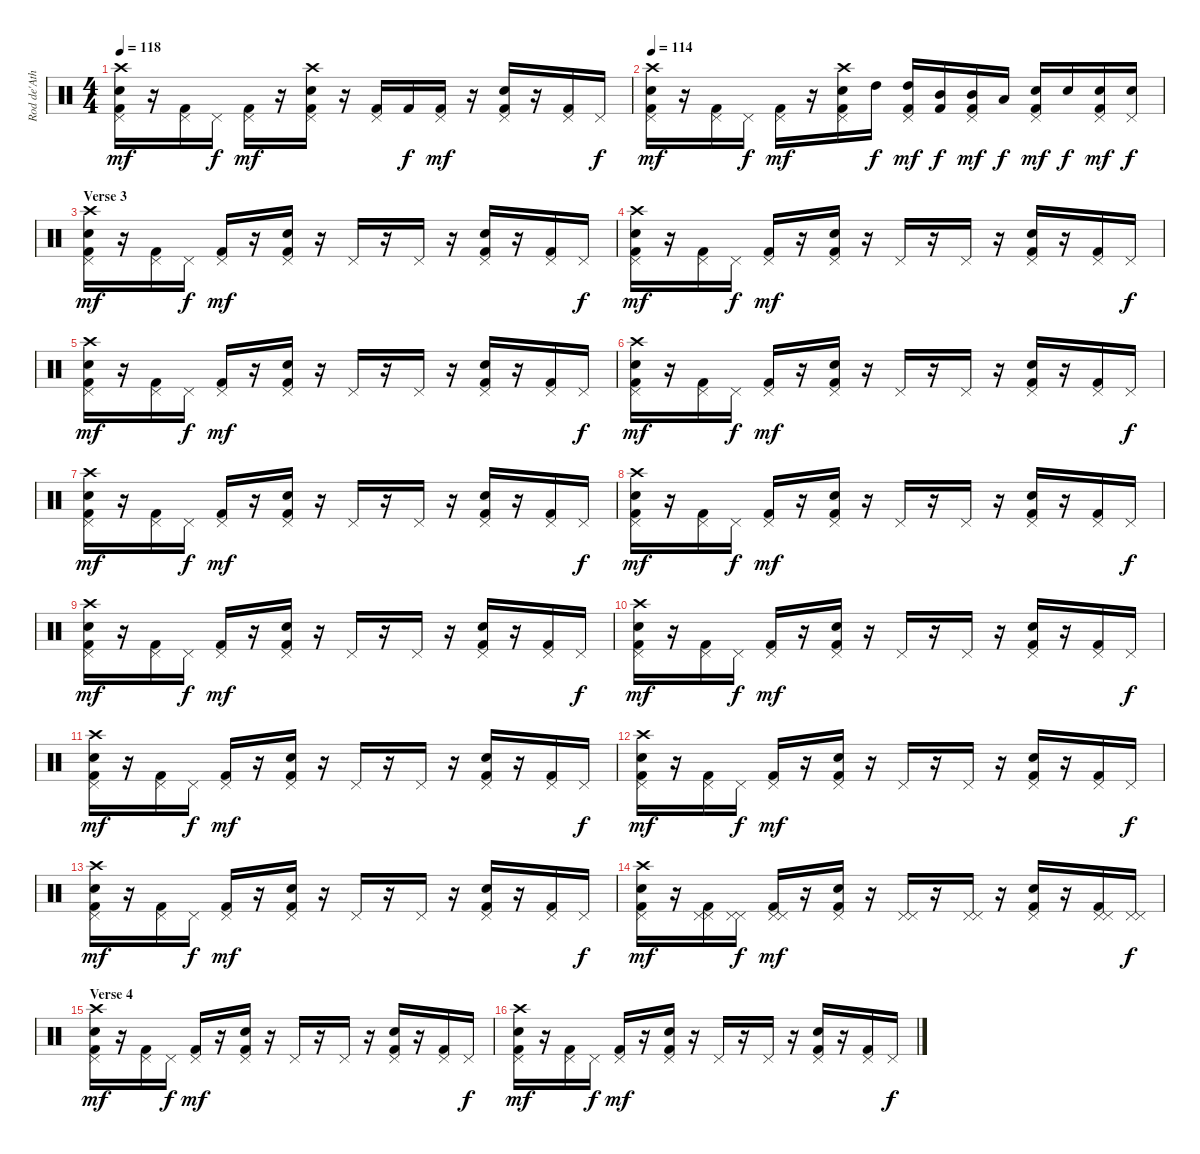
\track ("Rod de'Ath" "Rod de'Ath") {instrument percussion}
\staff {score}
\articulation defaults
\ts (4 4)
\tempo 118
\clef neutral
\ks c
("Crash high (hit)" "Snare (hit) 2" "Pedal Hi-Hat (hit)" "Kick (hit) 2").16{dy mf} r.16 ("Pedal Hi-Hat (hit)" "Kick (hit) 2").16 "Pedal Hi-Hat (hit)".16{dy f} ("Pedal Hi-Hat (hit)" "Kick (hit) 2").16{dy mf} r.16 ("Crash high (hit)" "Snare (hit) 2" "Pedal Hi-Hat (hit)" "Kick (hit) 2").16 r.16 ("Pedal Hi-Hat (hit)" "Kick (hit) 2").16 "Kick (hit) 2".16{dy f} ("Pedal Hi-Hat (hit)" "Kick (hit) 2").16{dy mf} r.16 ("Snare (hit) 2" "Pedal Hi-Hat (hit)" "Kick (hit) 2").16 r.16 ("Pedal Hi-Hat (hit)" "Kick (hit) 2").16 "Pedal Hi-Hat (hit)".16{dy f} |
\tempo 114
("Crash high (hit)" "Snare (hit) 2" "Pedal Hi-Hat (hit)" "Kick (hit) 2").16{dy mf} r.16 ("Pedal Hi-Hat (hit)" "Kick (hit) 2").16 "Pedal Hi-Hat (hit)".16{dy f} ("Pedal Hi-Hat (hit)" "Kick (hit) 2").16{dy mf} r.16 ("Crash high (hit)" "Snare (hit) 2" "Pedal Hi-Hat (hit)" "Kick (hit) 2").16 "High Tom (hit)".16{dy f} ("High Tom (hit)" "Pedal Hi-Hat (hit)" "Kick (hit) 2").16{dy mf} ("Mid Tom (hit)" "Kick (hit) 2").16{dy f} ("Mid Tom (hit)" "Pedal Hi-Hat (hit)" "Kick (hit) 2").16{dy mf} "Low Tom (hit)".16{dy f} ("Snare (hit) 2" "Pedal Hi-Hat (hit)" "Kick (hit) 2").16{dy mf} "Snare (hit) 2".16{dy f} ("Snare (hit) 2" "Pedal Hi-Hat (hit)" "Kick (hit) 2").16{dy mf} ("Snare (hit) 2" "Pedal Hi-Hat (hit)").16{dy f} |
\section ("" "Verse 3")
("Crash high (hit)" "Snare (hit) 2" "Pedal Hi-Hat (hit)" "Kick (hit) 2").16{dy mf} r.16 ("Pedal Hi-Hat (hit)" "Kick (hit) 2").16 "Pedal Hi-Hat (hit)".16{dy f} ("Pedal Hi-Hat (hit)" "Kick (hit) 2").16{dy mf} r.16 ("Snare (hit) 2" "Pedal Hi-Hat (hit)" "Kick (hit) 2").16 r.16 "Pedal Hi-Hat (hit)".16 r.16 "Pedal Hi-Hat (hit)".16 r.16 ("Snare (hit) 2" "Pedal Hi-Hat (hit)" "Kick (hit) 2").16 r.16 ("Pedal Hi-Hat (hit)" "Kick (hit) 2").16 "Pedal Hi-Hat (hit)".16{dy f} |
("Crash high (hit)" "Snare (hit) 2" "Pedal Hi-Hat (hit)" "Kick (hit) 2").16{dy mf} r.16 ("Pedal Hi-Hat (hit)" "Kick (hit) 2").16 "Pedal Hi-Hat (hit)".16{dy f} ("Pedal Hi-Hat (hit)" "Kick (hit) 2").16{dy mf} r.16 ("Snare (hit) 2" "Pedal Hi-Hat (hit)" "Kick (hit) 2").16 r.16 "Pedal Hi-Hat (hit)".16 r.16 "Pedal Hi-Hat (hit)".16 r.16 ("Snare (hit) 2" "Pedal Hi-Hat (hit)" "Kick (hit) 2").16 r.16 ("Pedal Hi-Hat (hit)" "Kick (hit) 2").16 "Pedal Hi-Hat (hit)".16{dy f} |
("Crash high (hit)" "Snare (hit) 2" "Pedal Hi-Hat (hit)" "Kick (hit) 2").16{dy mf} r.16 ("Pedal Hi-Hat (hit)" "Kick (hit) 2").16 "Pedal Hi-Hat (hit)".16{dy f} ("Pedal Hi-Hat (hit)" "Kick (hit) 2").16{dy mf} r.16 ("Snare (hit) 2" "Pedal Hi-Hat (hit)" "Kick (hit) 2").16 r.16 "Pedal Hi-Hat (hit)".16 r.16 "Pedal Hi-Hat (hit)".16 r.16 ("Snare (hit) 2" "Pedal Hi-Hat (hit)" "Kick (hit) 2").16 r.16 ("Pedal Hi-Hat (hit)" "Kick (hit) 2").16 "Pedal Hi-Hat (hit)".16{dy f} |
("Crash high (hit)" "Snare (hit) 2" "Pedal Hi-Hat (hit)" "Kick (hit) 2").16{dy mf} r.16 ("Pedal Hi-Hat (hit)" "Kick (hit) 2").16 "Pedal Hi-Hat (hit)".16{dy f} ("Pedal Hi-Hat (hit)" "Kick (hit) 2").16{dy mf} r.16 ("Snare (hit) 2" "Pedal Hi-Hat (hit)" "Kick (hit) 2").16 r.16 "Pedal Hi-Hat (hit)".16 r.16 "Pedal Hi-Hat (hit)".16 r.16 ("Snare (hit) 2" "Pedal Hi-Hat (hit)" "Kick (hit) 2").16 r.16 ("Pedal Hi-Hat (hit)" "Kick (hit) 2").16 "Pedal Hi-Hat (hit)".16{dy f} |
("Crash high (hit)" "Snare (hit) 2" "Pedal Hi-Hat (hit)" "Kick (hit) 2").16{dy mf} r.16 ("Pedal Hi-Hat (hit)" "Kick (hit) 2").16 "Pedal Hi-Hat (hit)".16{dy f} ("Pedal Hi-Hat (hit)" "Kick (hit) 2").16{dy mf} r.16 ("Snare (hit) 2" "Pedal Hi-Hat (hit)" "Kick (hit) 2").16 r.16 "Pedal Hi-Hat (hit)".16 r.16 "Pedal Hi-Hat (hit)".16 r.16 ("Snare (hit) 2" "Pedal Hi-Hat (hit)" "Kick (hit) 2").16 r.16 ("Pedal Hi-Hat (hit)" "Kick (hit) 2").16 "Pedal Hi-Hat (hit)".16{dy f} |
("Crash high (hit)" "Snare (hit) 2" "Pedal Hi-Hat (hit)" "Kick (hit) 2").16{dy mf} r.16 ("Pedal Hi-Hat (hit)" "Kick (hit) 2").16 "Pedal Hi-Hat (hit)".16{dy f} ("Pedal Hi-Hat (hit)" "Kick (hit) 2").16{dy mf} r.16 ("Snare (hit) 2" "Pedal Hi-Hat (hit)" "Kick (hit) 2").16 r.16 "Pedal Hi-Hat (hit)".16 r.16 "Pedal Hi-Hat (hit)".16 r.16 ("Snare (hit) 2" "Pedal Hi-Hat (hit)" "Kick (hit) 2").16 r.16 ("Pedal Hi-Hat (hit)" "Kick (hit) 2").16 "Pedal Hi-Hat (hit)".16{dy f} |
("Crash high (hit)" "Snare (hit) 2" "Pedal Hi-Hat (hit)" "Kick (hit) 2").16{dy mf} r.16 ("Pedal Hi-Hat (hit)" "Kick (hit) 2").16 "Pedal Hi-Hat (hit)".16{dy f} ("Pedal Hi-Hat (hit)" "Kick (hit) 2").16{dy mf} r.16 ("Snare (hit) 2" "Pedal Hi-Hat (hit)" "Kick (hit) 2").16 r.16 "Pedal Hi-Hat (hit)".16 r.16 "Pedal Hi-Hat (hit)".16 r.16 ("Snare (hit) 2" "Pedal Hi-Hat (hit)" "Kick (hit) 2").16 r.16 ("Pedal Hi-Hat (hit)" "Kick (hit) 2").16 "Pedal Hi-Hat (hit)".16{dy f} |
("Crash high (hit)" "Snare (hit) 2" "Pedal Hi-Hat (hit)" "Kick (hit) 2").16{dy mf} r.16 ("Pedal Hi-Hat (hit)" "Kick (hit) 2").16 "Pedal Hi-Hat (hit)".16{dy f} ("Pedal Hi-Hat (hit)" "Kick (hit) 2").16{dy mf} r.16 ("Snare (hit) 2" "Pedal Hi-Hat (hit)" "Kick (hit) 2").16 r.16 "Pedal Hi-Hat (hit)".16 r.16 "Pedal Hi-Hat (hit)".16 r.16 ("Snare (hit) 2" "Pedal Hi-Hat (hit)" "Kick (hit) 2").16 r.16 ("Pedal Hi-Hat (hit)" "Kick (hit) 2").16 "Pedal Hi-Hat (hit)".16{dy f} |
("Crash high (hit)" "Snare (hit) 2" "Pedal Hi-Hat (hit)" "Kick (hit) 2").16{dy mf} r.16 ("Pedal Hi-Hat (hit)" "Kick (hit) 2").16 "Pedal Hi-Hat (hit)".16{dy f} ("Pedal Hi-Hat (hit)" "Kick (hit) 2").16{dy mf} r.16 ("Snare (hit) 2" "Pedal Hi-Hat (hit)" "Kick (hit) 2").16 r.16 "Pedal Hi-Hat (hit)".16 r.16 "Pedal Hi-Hat (hit)".16 r.16 ("Snare (hit) 2" "Pedal Hi-Hat (hit)" "Kick (hit) 2").16 r.16 ("Pedal Hi-Hat (hit)" "Kick (hit) 2").16 "Pedal Hi-Hat (hit)".16{dy f} |
("Crash high (hit)" "Snare (hit) 2" "Pedal Hi-Hat (hit)" "Kick (hit) 2").16{dy mf} r.16 ("Pedal Hi-Hat (hit)" "Kick (hit) 2").16 "Pedal Hi-Hat (hit)".16{dy f} ("Pedal Hi-Hat (hit)" "Kick (hit) 2").16{dy mf} r.16 ("Snare (hit) 2" "Pedal Hi-Hat (hit)" "Kick (hit) 2").16 r.16 "Pedal Hi-Hat (hit)".16 r.16 "Pedal Hi-Hat (hit)".16 r.16 ("Snare (hit) 2" "Pedal Hi-Hat (hit)" "Kick (hit) 2").16 r.16 ("Pedal Hi-Hat (hit)" "Kick (hit) 2").16 "Pedal Hi-Hat (hit)".16{dy f} |
("Crash high (hit)" "Snare (hit) 2" "Pedal Hi-Hat (hit)" "Kick (hit) 2").16{dy mf} r.16 ("Pedal Hi-Hat (hit)" "Kick (hit) 2").16 "Pedal Hi-Hat (hit)".16{dy f} ("Pedal Hi-Hat (hit)" "Kick (hit) 2").16{dy mf} r.16 ("Snare (hit) 2" "Pedal Hi-Hat (hit)" "Kick (hit) 2").16 r.16 "Pedal Hi-Hat (hit)".16 r.16 "Pedal Hi-Hat (hit)".16 r.16 ("Snare (hit) 2" "Pedal Hi-Hat (hit)" "Kick (hit) 2").16 r.16 ("Pedal Hi-Hat (hit)" "Kick (hit) 2").16 "Pedal Hi-Hat (hit)".16{dy f} |
("Crash high (hit)" "Snare (hit) 2" "Pedal Hi-Hat (hit)" "Kick (hit) 2").16{dy mf} r.16 ("Pedal Hi-Hat (hit)" "Pedal Hi-Hat (hit)" "Kick (hit) 2").16 ("Pedal Hi-Hat (hit)" "Pedal Hi-Hat (hit)").16{dy f} ("Pedal Hi-Hat (hit)" "Pedal Hi-Hat (hit)" "Kick (hit) 2").16{dy mf} r.16 ("Snare (hit) 2" "Pedal Hi-Hat (hit)" "Kick (hit) 2").16 r.16 ("Pedal Hi-Hat (hit)" "Pedal Hi-Hat (hit)").16 r.16 ("Pedal Hi-Hat (hit)" "Pedal Hi-Hat (hit)").16 r.16 ("Snare (hit) 2" "Pedal Hi-Hat (hit)" "Kick (hit) 2").16 r.16 ("Pedal Hi-Hat (hit)" "Pedal Hi-Hat (hit)" "Kick (hit) 2").16 ("Pedal Hi-Hat (hit)" "Pedal Hi-Hat (hit)").16{dy f} |
\section ("" "Verse 4")
("Crash high (hit)" "Snare (hit) 2" "Pedal Hi-Hat (hit)" "Kick (hit) 2").16{dy mf} r.16 ("Pedal Hi-Hat (hit)" "Kick (hit) 2").16 "Pedal Hi-Hat (hit)".16{dy f} ("Pedal Hi-Hat (hit)" "Kick (hit) 2").16{dy mf} r.16 ("Snare (hit) 2" "Pedal Hi-Hat (hit)" "Kick (hit) 2").16 r.16 "Pedal Hi-Hat (hit)".16 r.16 "Pedal Hi-Hat (hit)".16 r.16 ("Snare (hit) 2" "Pedal Hi-Hat (hit)" "Kick (hit) 2").16 r.16 ("Pedal Hi-Hat (hit)" "Kick (hit) 2").16 "Pedal Hi-Hat (hit)".16{dy f} |
("Crash high (hit)" "Snare (hit) 2" "Pedal Hi-Hat (hit)" "Kick (hit) 2").16{dy mf} r.16 ("Pedal Hi-Hat (hit)" "Kick (hit) 2").16 "Pedal Hi-Hat (hit)".16{dy f} ("Pedal Hi-Hat (hit)" "Kick (hit) 2").16{dy mf} r.16 ("Snare (hit) 2" "Pedal Hi-Hat (hit)" "Kick (hit) 2").16 r.16 "Pedal Hi-Hat (hit)".16 r.16 "Pedal Hi-Hat (hit)".16 r.16 ("Snare (hit) 2" "Pedal Hi-Hat (hit)" "Kick (hit) 2").16 r.16 ("Pedal Hi-Hat (hit)" "Kick (hit) 2").16 "Pedal Hi-Hat (hit)".16{dy f}
